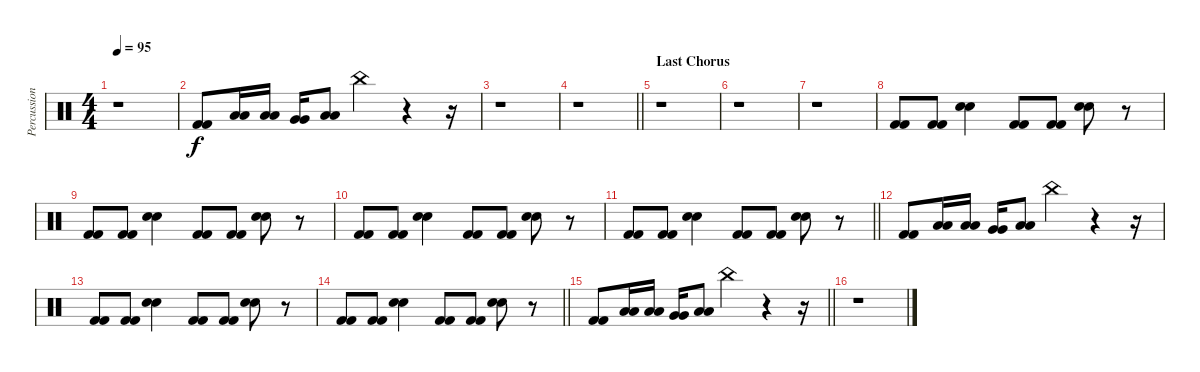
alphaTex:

\track ("Percussion" "Percussion") {instrument percussion}
\staff {score}
\articulation defaults
\ts (4 4)
\tempo 95
\clef neutral
\ks c
r.1{dy f} |
("Kick (hit) 2" "Kick (hit) 2").8 ("Low Floor Tom (hit)" "Low Floor Tom (hit)").16 ("Low Floor Tom (hit)" "Low Floor Tom (hit)").16 ("Very Low Tom (hit)" "Very Low Tom (hit)").16 ("Low Floor Tom (hit)" "Low Floor Tom (hit)").8 "China (hit)".4 r.4 r.16 |
r.1 |
\barLineRight lightlight
r.1 |
\section ("" "Last Chorus")
r.1 |
r.1 |
r.1 |
("Kick (hit) 2" "Kick (hit) 2").8 ("Kick (hit) 2" "Kick (hit) 2").8 ("Electric Snare (hit)" "Electric Snare (hit)").4 ("Kick (hit) 2" "Kick (hit) 2").8 ("Kick (hit) 2" "Kick (hit) 2").8 ("Electric Snare (hit)" "Electric Snare (hit)").8 r.8 |
("Kick (hit) 2" "Kick (hit) 2").8 ("Kick (hit) 2" "Kick (hit) 2").8 ("Electric Snare (hit)" "Electric Snare (hit)").4 ("Kick (hit) 2" "Kick (hit) 2").8 ("Kick (hit) 2" "Kick (hit) 2").8 ("Electric Snare (hit)" "Electric Snare (hit)").8 r.8 |
("Kick (hit) 2" "Kick (hit) 2").8 ("Kick (hit) 2" "Kick (hit) 2").8 ("Electric Snare (hit)" "Electric Snare (hit)").4 ("Kick (hit) 2" "Kick (hit) 2").8 ("Kick (hit) 2" "Kick (hit) 2").8 ("Electric Snare (hit)" "Electric Snare (hit)").8 r.8 |
\barLineRight lightlight
("Kick (hit) 2" "Kick (hit) 2").8 ("Kick (hit) 2" "Kick (hit) 2").8 ("Electric Snare (hit)" "Electric Snare (hit)").4 ("Kick (hit) 2" "Kick (hit) 2").8 ("Kick (hit) 2" "Kick (hit) 2").8 ("Electric Snare (hit)" "Electric Snare (hit)").8 r.8 |
("Kick (hit) 2" "Kick (hit) 2").8 ("Low Floor Tom (hit)" "Low Floor Tom (hit)").16 ("Low Floor Tom (hit)" "Low Floor Tom (hit)").16 ("Very Low Tom (hit)" "Very Low Tom (hit)").16 ("Low Floor Tom (hit)" "Low Floor Tom (hit)").8 "China (hit)".4 r.4 r.16 |
("Kick (hit) 2" "Kick (hit) 2").8 ("Kick (hit) 2" "Kick (hit) 2").8 ("Electric Snare (hit)" "Electric Snare (hit)").4 ("Kick (hit) 2" "Kick (hit) 2").8 ("Kick (hit) 2" "Kick (hit) 2").8 ("Electric Snare (hit)" "Electric Snare (hit)").8 r.8 |
\barLineRight lightlight
("Kick (hit) 2" "Kick (hit) 2").8 ("Kick (hit) 2" "Kick (hit) 2").8 ("Electric Snare (hit)" "Electric Snare (hit)").4 ("Kick (hit) 2" "Kick (hit) 2").8 ("Kick (hit) 2" "Kick (hit) 2").8 ("Electric Snare (hit)" "Electric Snare (hit)").8 r.8 |
\barLineRight lightlight
("Kick (hit) 2" "Kick (hit) 2").8 ("Low Floor Tom (hit)" "Low Floor Tom (hit)").16 ("Low Floor Tom (hit)" "Low Floor Tom (hit)").16 ("Very Low Tom (hit)" "Very Low Tom (hit)").16 ("Low Floor Tom (hit)" "Low Floor Tom (hit)").8 "China (hit)".4 r.4 r.16 |
r.1
